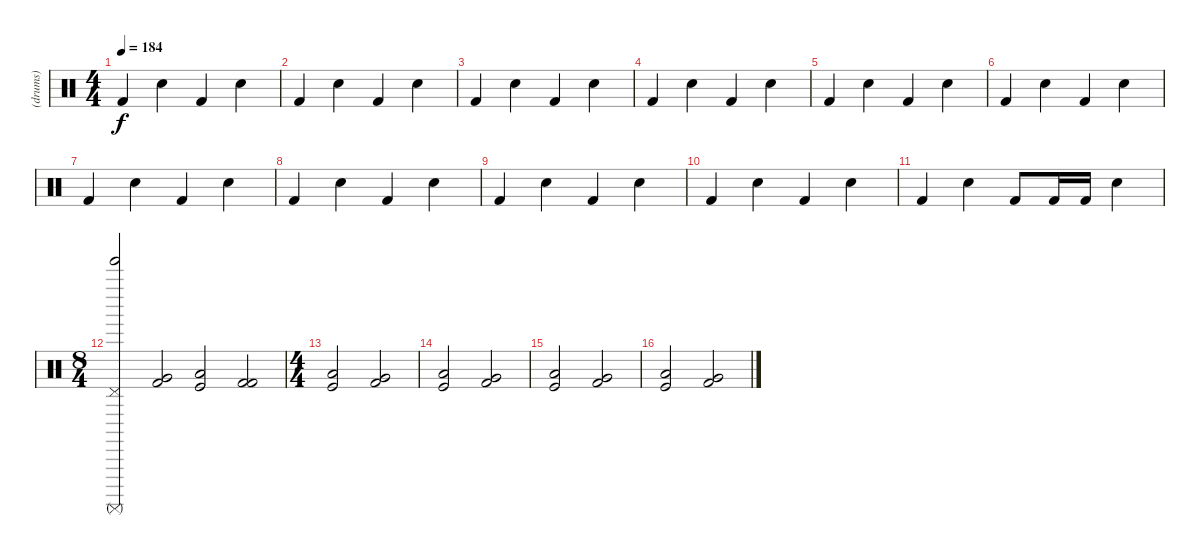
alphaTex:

\track ("(drums)" "(drums)") {instrument percussion}
\staff {score}
\articulation defaults
\ts (4 4)
\tempo 184
\clef neutral
\ks c "Kick (hit) 2".4{dy f} "Electric Snare (hit)".4 "Kick (hit) 2".4 "Electric Snare (hit)".4
|
"Kick (hit) 2".4 "Electric Snare (hit)".4 "Kick (hit) 2".4 "Electric Snare (hit)".4 |
"Kick (hit) 2".4 "Electric Snare (hit)".4 "Kick (hit) 2".4 "Electric Snare (hit)".4 |
"Kick (hit) 2".4 "Electric Snare (hit)".4 "Kick (hit) 2".4 "Electric Snare (hit)".4 |
"Kick (hit) 2".4 "Electric Snare (hit)".4 "Kick (hit) 2".4 "Electric Snare (hit)".4 |
"Kick (hit) 2".4 "Electric Snare (hit)".4 "Kick (hit) 2".4 "Electric Snare (hit)".4 |
"Kick (hit) 2".4 "Electric Snare (hit)".4 "Kick (hit) 2".4 "Electric Snare (hit)".4 |
"Kick (hit) 2".4 "Electric Snare (hit)".4 "Kick (hit) 2".4 "Electric Snare (hit)".4 |
"Kick (hit) 2".4 "Electric Snare (hit)".4 "Kick (hit) 2".4 "Electric Snare (hit)".4 |
"Kick (hit) 2".4 "Electric Snare (hit)".4 "Kick (hit) 2".4 "Electric Snare (hit)".4 |
"Kick (hit) 2".4 "Electric Snare (hit)".4 "Kick (hit) 2".8 "Kick (hit) 2".16 "Kick (hit) 2".16 "Electric Snare (hit)".4 |
\ts (8 4)
("Pedal Hi-Hat (hit)" "Tinkle Bell (hit)" "Surdo (mute)").2 ("Very Low Tom (hit)" "Kick (hit) 2").2 ("Low Tom (hit)" "Kick (hit)").2 ("Kick (hit) 2" "Kick (hit) 2").2 |
\ts (4 4)
("Low Tom (hit)" "Kick (hit)").2 ("Very Low Tom (hit)" "Kick (hit) 2").2 |
("Low Tom (hit)" "Kick (hit)").2 ("Very Low Tom (hit)" "Kick (hit) 2").2 |
("Low Tom (hit)" "Kick (hit)").2 ("Very Low Tom (hit)" "Kick (hit) 2").2 |
("Low Tom (hit)" "Kick (hit)").2 ("Very Low Tom (hit)" "Kick (hit) 2").2
